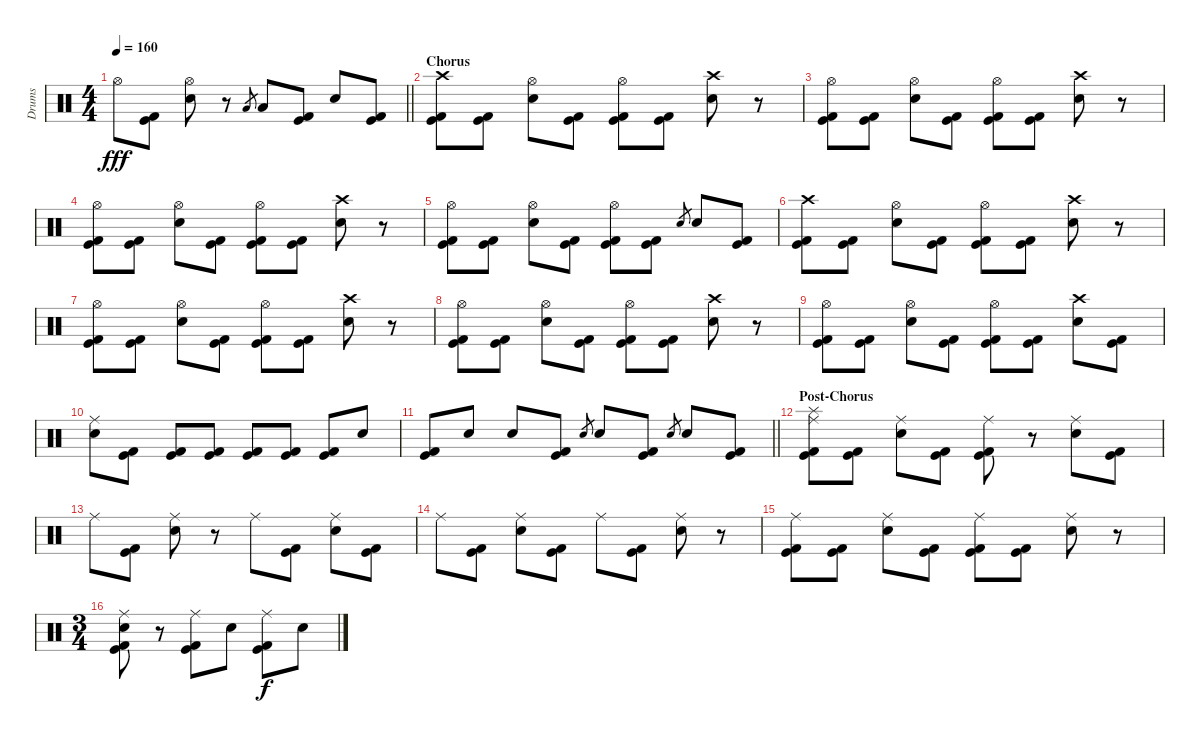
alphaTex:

\track ("Drums" "Drums") {instrument percussion}
\staff {score}
\articulation defaults
\ts (4 4)
\tempo 160
\clef neutral
\barLineRight lightlight
\ks c "Hi-Hat (open)".8{dy fff}
("Kick (hit)" "Kick (hit) 2").8 ("Hi-Hat (open)" "Electric Snare (hit)").8 r.8 "Low Floor Tom (hit)".8{gr} "Low Floor Tom (hit)".8 ("Kick (hit)" "Kick (hit) 2").8 "Electric Snare (hit)".8 ("Kick (hit)" "Kick (hit) 2").8 |
\section ("" "Chorus")
("Crash high (hit)" "Kick (hit)" "Kick (hit) 2").8 ("Kick (hit)" "Kick (hit) 2").8 ("Hi-Hat (open)" "Electric Snare (hit)").8 ("Kick (hit)" "Kick (hit) 2").8 ("Hi-Hat (open)" "Kick (hit)" "Kick (hit) 2").8 ("Kick (hit)" "Kick (hit) 2").8 ("Crash high (hit)" "Electric Snare (hit)").8 r.8 |
("Hi-Hat (open)" "Kick (hit)" "Kick (hit) 2").8 ("Kick (hit)" "Kick (hit) 2").8 ("Hi-Hat (open)" "Electric Snare (hit)").8 ("Kick (hit)" "Kick (hit) 2").8 ("Hi-Hat (open)" "Kick (hit)" "Kick (hit) 2").8 ("Kick (hit)" "Kick (hit) 2").8 ("Crash high (hit)" "Electric Snare (hit)").8 r.8 |
("Hi-Hat (open)" "Kick (hit)" "Kick (hit) 2").8 ("Kick (hit)" "Kick (hit) 2").8 ("Hi-Hat (open)" "Electric Snare (hit)").8 ("Kick (hit)" "Kick (hit) 2").8 ("Hi-Hat (open)" "Kick (hit)" "Kick (hit) 2").8 ("Kick (hit)" "Kick (hit) 2").8 ("Crash high (hit)" "Electric Snare (hit)").8 r.8 |
("Hi-Hat (open)" "Kick (hit)" "Kick (hit) 2").8 ("Kick (hit)" "Kick (hit) 2").8 ("Hi-Hat (open)" "Electric Snare (hit)").8 ("Kick (hit)" "Kick (hit) 2").8 ("Hi-Hat (open)" "Kick (hit)" "Kick (hit) 2").8 ("Kick (hit)" "Kick (hit) 2").8 "Electric Snare (hit)".8{gr} "Electric Snare (hit)".8 ("Kick (hit)" "Kick (hit) 2").8 |
("Crash high (hit)" "Kick (hit)" "Kick (hit) 2").8 ("Kick (hit)" "Kick (hit) 2").8 ("Hi-Hat (open)" "Electric Snare (hit)").8 ("Kick (hit)" "Kick (hit) 2").8 ("Hi-Hat (open)" "Kick (hit)" "Kick (hit) 2").8 ("Kick (hit)" "Kick (hit) 2").8 ("Crash high (hit)" "Electric Snare (hit)").8 r.8 |
("Hi-Hat (open)" "Kick (hit)" "Kick (hit) 2").8 ("Kick (hit)" "Kick (hit) 2").8 ("Hi-Hat (open)" "Electric Snare (hit)").8 ("Kick (hit)" "Kick (hit) 2").8 ("Hi-Hat (open)" "Kick (hit)" "Kick (hit) 2").8 ("Kick (hit)" "Kick (hit) 2").8 ("Crash high (hit)" "Electric Snare (hit)").8 r.8 |
("Hi-Hat (open)" "Kick (hit)" "Kick (hit) 2").8 ("Kick (hit)" "Kick (hit) 2").8 ("Hi-Hat (open)" "Electric Snare (hit)").8 ("Kick (hit)" "Kick (hit) 2").8 ("Hi-Hat (open)" "Kick (hit)" "Kick (hit) 2").8 ("Kick (hit)" "Kick (hit) 2").8 ("Crash high (hit)" "Electric Snare (hit)").8 r.8 |
("Hi-Hat (open)" "Kick (hit)" "Kick (hit) 2").8 ("Kick (hit)" "Kick (hit) 2").8 ("Hi-Hat (open)" "Electric Snare (hit)").8 ("Kick (hit)" "Kick (hit) 2").8 ("Hi-Hat (open)" "Kick (hit)" "Kick (hit) 2").8 ("Kick (hit)" "Kick (hit) 2").8 ("Crash high (hit)" "Electric Snare (hit)").8 ("Kick (hit)" "Kick (hit) 2").8 |
("Ride (middle)" "Electric Snare (hit)").8 ("Kick (hit)" "Kick (hit) 2").8 ("Kick (hit)" "Kick (hit) 2").8 ("Kick (hit)" "Kick (hit) 2").8 ("Kick (hit)" "Kick (hit) 2").8 ("Kick (hit)" "Kick (hit) 2").8 ("Kick (hit)" "Kick (hit) 2").8 "Electric Snare (hit)".8 |
\barLineRight lightlight
("Kick (hit)" "Kick (hit) 2").8 "Electric Snare (hit)".8 "Electric Snare (hit)".8 ("Kick (hit)" "Kick (hit) 2").8 "Electric Snare (hit)".8{gr} "Electric Snare (hit)".8 ("Kick (hit)" "Kick (hit) 2").8 "Electric Snare (hit)".8{gr} "Electric Snare (hit)".8 ("Kick (hit)" "Kick (hit) 2").8 |
\section ("" "Post-Chorus")
("Splash (hit)" "Ride (middle)" "Kick (hit)" "Kick (hit) 2").8 ("Kick (hit)" "Kick (hit) 2").8 ("Ride (middle)" "Electric Snare (hit)").8 ("Kick (hit)" "Kick (hit) 2").8 ("Ride (middle)" "Kick (hit)" "Kick (hit) 2").8 r.8 ("Ride (middle)" "Electric Snare (hit)").8 ("Kick (hit)" "Kick (hit) 2").8 |
"Ride (middle)".8 ("Kick (hit)" "Kick (hit) 2").8 ("Ride (middle)" "Electric Snare (hit)").8 r.8 "Ride (middle)".8 ("Kick (hit)" "Kick (hit) 2").8 ("Ride (middle)" "Electric Snare (hit)").8 ("Kick (hit)" "Kick (hit) 2").8 |
"Ride (middle)".8 ("Kick (hit)" "Kick (hit) 2").8 ("Ride (middle)" "Electric Snare (hit)").8 ("Kick (hit)" "Kick (hit) 2").8 "Ride (middle)".8 ("Kick (hit)" "Kick (hit) 2").8 ("Ride (middle)" "Electric Snare (hit)").8 r.8 |
("Ride (middle)" "Kick (hit)" "Kick (hit) 2").8 ("Kick (hit)" "Kick (hit) 2").8 ("Ride (middle)" "Electric Snare (hit)").8 ("Kick (hit)" "Kick (hit) 2").8 ("Ride (middle)" "Kick (hit)" "Kick (hit) 2").8 ("Kick (hit)" "Kick (hit) 2").8 ("Ride (middle)" "Electric Snare (hit)").8 r.8 |
\ts (3 4)
("Ride (middle)" "Electric Snare (hit)" "Kick (hit)" "Kick (hit) 2").8 r.8 ("Ride (middle)" "Kick (hit)" "Kick (hit) 2").8 "Electric Snare (hit)".8 ("Ride (middle)" "Kick (hit)" "Kick (hit) 2").8{dy f} "Electric Snare (hit)".8
